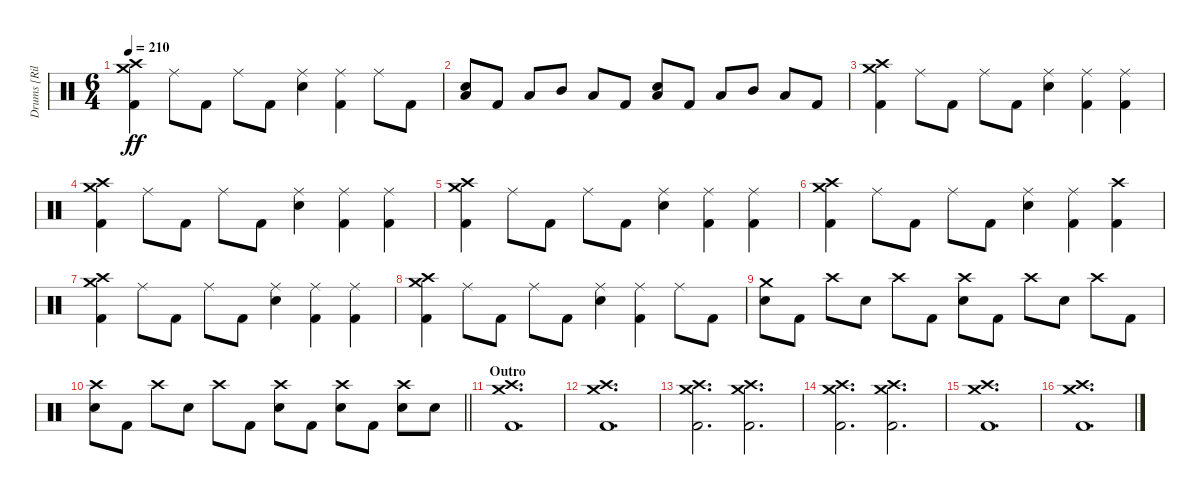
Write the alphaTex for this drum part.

\track ("Drums [Riley]" "Drums [Ril") {instrument percussion}
\staff {score}
\articulation defaults
\ts (6 4)
\tempo 210
\clef neutral
\ks c
("Crash medium (hit)" "Crash high (hit)" "Kick (hit) 2").4{dy ff} "Ride (middle)".8 "Kick (hit) 2".8 "Ride (middle)".8 "Kick (hit) 2".8 ("Ride (middle)" "Electric Snare (hit)").4 ("Ride (middle)" "Kick (hit) 2").4 "Ride (middle)".8 "Kick (hit) 2".8 |
("Low Tom (hit)" "Electric Snare (hit)").8{bu 60} "Kick (hit) 2".8 "Low Tom (hit)".8 "Mid Tom (hit)".8 "Low Tom (hit)".8 "Kick (hit) 2".8 ("Low Tom (hit)" "Electric Snare (hit)").8{bu 60} "Kick (hit) 2".8 "Low Tom (hit)".8 "Mid Tom (hit)".8 "Low Tom (hit)".8 "Kick (hit) 2".8 |
("Crash medium (hit)" "Crash high (hit)" "Kick (hit) 2").4 "Ride (middle)".8 "Kick (hit) 2".8 "Ride (middle)".8 "Kick (hit) 2".8 ("Ride (middle)" "Electric Snare (hit)").4 ("Ride (middle)" "Kick (hit) 2").4 ("Ride (middle)" "Kick (hit) 2").4 |
("Crash medium (hit)" "Crash high (hit)" "Kick (hit) 2").4 "Ride (middle)".8 "Kick (hit) 2".8 "Ride (middle)".8 "Kick (hit) 2".8 ("Ride (middle)" "Electric Snare (hit)").4 ("Ride (middle)" "Kick (hit) 2").4 ("Ride (middle)" "Kick (hit) 2").4 |
("Crash medium (hit)" "Crash high (hit)" "Kick (hit) 2").4 "Ride (middle)".8 "Kick (hit) 2".8 "Ride (middle)".8 "Kick (hit) 2".8 ("Ride (middle)" "Electric Snare (hit)").4 ("Ride (middle)" "Kick (hit) 2").4 ("Ride (middle)" "Kick (hit) 2").4 |
("Crash medium (hit)" "Crash high (hit)" "Kick (hit) 2").4 "Ride (middle)".8 "Kick (hit) 2".8 "Ride (middle)".8 "Kick (hit) 2".8 ("Ride (middle)" "Electric Snare (hit)").4 ("Ride (middle)" "Kick (hit) 2").4 ("Crash high (hit)" "Kick (hit) 2").4 |
("Crash medium (hit)" "Crash high (hit)" "Kick (hit) 2").4 "Ride (middle)".8 "Kick (hit) 2".8 "Ride (middle)".8 "Kick (hit) 2".8 ("Ride (middle)" "Electric Snare (hit)").4 ("Ride (middle)" "Kick (hit) 2").4 ("Ride (middle)" "Kick (hit) 2").4 |
("Crash medium (hit)" "Crash high (hit)" "Kick (hit) 2").4 "Ride (middle)".8 "Kick (hit) 2".8 "Ride (middle)".8 "Kick (hit) 2".8 ("Ride (middle)" "Electric Snare (hit)").4 ("Ride (middle)" "Kick (hit) 2").4 "Ride (middle)".8 "Kick (hit) 2".8 |
("Crash medium (hit)" "Electric Snare (hit)").8 "Kick (hit) 2".8 "Crash high (hit)".8 "Electric Snare (hit)".8 "Crash high (hit)".8 "Kick (hit) 2".8 ("Crash high (hit)" "Electric Snare (hit)").8 "Kick (hit) 2".8 "Crash high (hit)".8 "Electric Snare (hit)".8 "Crash high (hit)".8 "Kick (hit) 2".8 |
\barLineRight lightlight
("Crash high (hit)" "Electric Snare (hit)").8 "Kick (hit) 2".8 "Crash high (hit)".8 "Electric Snare (hit)".8 "Crash high (hit)".8 "Kick (hit) 2".8 ("Crash high (hit)" "Electric Snare (hit)").8 "Kick (hit) 2".8 ("Crash high (hit)" "Electric Snare (hit)").8 "Kick (hit) 2".8 ("Crash high (hit)" "Electric Snare (hit)").8 "Electric Snare (hit)".8 |
\section ("" "Outro")
("Crash medium (hit)" "Crash high (hit)" "Kick (hit) 2").1{d} |
("Crash medium (hit)" "Crash high (hit)" "Kick (hit) 2").1{d} |
("Crash medium (hit)" "Crash high (hit)" "Kick (hit) 2").2{d} ("Crash medium (hit)" "Crash high (hit)" "Kick (hit) 2").2{d} |
("Crash medium (hit)" "Crash high (hit)" "Kick (hit) 2").2{d} ("Crash medium (hit)" "Crash high (hit)" "Kick (hit) 2").2{d} |
("Crash medium (hit)" "Crash high (hit)" "Kick (hit) 2").1{d} |
("Crash medium (hit)" "Crash high (hit)" "Kick (hit) 2").1{d}
